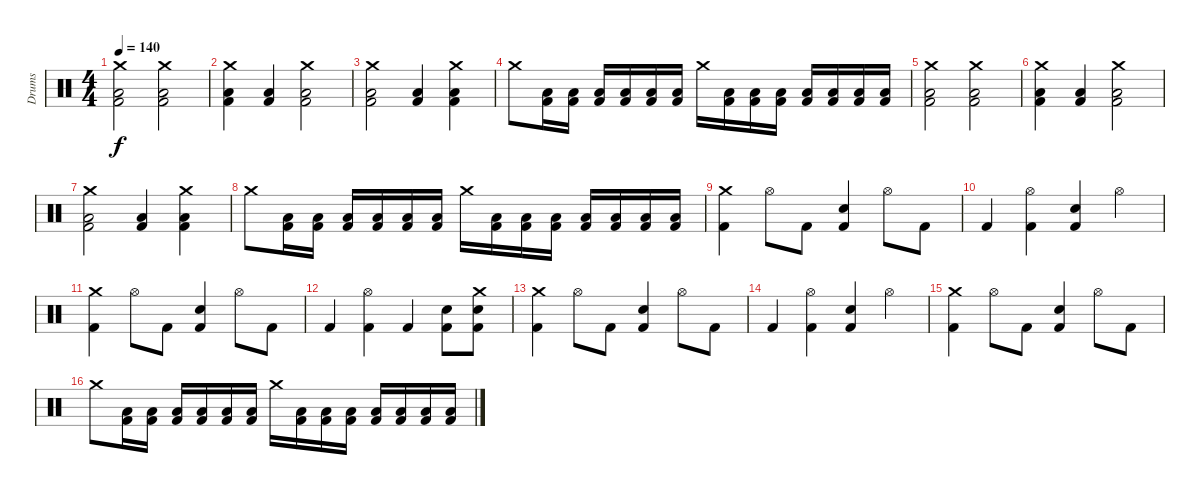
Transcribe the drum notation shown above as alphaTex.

\track ("Drums" "Drums") {instrument percussion}
\staff {score}
\articulation defaults
\ts (4 4)
\tempo 140
\clef neutral
\ks c
("Crash medium (hit)" "Low Tom (hit)" "Kick (hit) 2").2{dy f} ("Crash medium (hit)" "Low Tom (hit)" "Kick (hit) 2").2 |
("Crash medium (hit)" "Low Tom (hit)" "Kick (hit) 2").4 ("Low Tom (hit)" "Kick (hit) 2").4 ("Crash medium (hit)" "Low Tom (hit)" "Kick (hit) 2").2 |
("Crash medium (hit)" "Low Tom (hit)" "Kick (hit) 2").2 ("Low Tom (hit)" "Kick (hit) 2").4 ("Crash medium (hit)" "Low Tom (hit)" "Kick (hit) 2").4 |
"Crash medium (hit)".8 ("Low Tom (hit)" "Kick (hit) 2").16 ("Low Tom (hit)" "Kick (hit) 2").16 ("Low Tom (hit)" "Kick (hit) 2").16 ("Low Tom (hit)" "Kick (hit) 2").16 ("Low Tom (hit)" "Kick (hit) 2").16 ("Low Tom (hit)" "Kick (hit) 2").16 "Crash medium (hit)".16 ("Low Tom (hit)" "Kick (hit) 2").16 ("Low Tom (hit)" "Kick (hit) 2").16 ("Low Tom (hit)" "Kick (hit) 2").16 ("Low Tom (hit)" "Kick (hit) 2").16 ("Low Tom (hit)" "Kick (hit) 2").16 ("Low Tom (hit)" "Kick (hit) 2").16 ("Low Tom (hit)" "Kick (hit) 2").16 |
("Crash medium (hit)" "Low Tom (hit)" "Kick (hit) 2").2 ("Crash medium (hit)" "Low Tom (hit)" "Kick (hit) 2").2 |
("Crash medium (hit)" "Low Tom (hit)" "Kick (hit) 2").4 ("Low Tom (hit)" "Kick (hit) 2").4 ("Crash medium (hit)" "Low Tom (hit)" "Kick (hit) 2").2 |
("Crash medium (hit)" "Low Tom (hit)" "Kick (hit) 2").2 ("Low Tom (hit)" "Kick (hit) 2").4 ("Crash medium (hit)" "Low Tom (hit)" "Kick (hit) 2").4 |
"Crash medium (hit)".8 ("Low Tom (hit)" "Kick (hit) 2").16 ("Low Tom (hit)" "Kick (hit) 2").16 ("Low Tom (hit)" "Kick (hit) 2").16 ("Low Tom (hit)" "Kick (hit) 2").16 ("Low Tom (hit)" "Kick (hit) 2").16 ("Low Tom (hit)" "Kick (hit) 2").16 "Crash medium (hit)".16 ("Low Tom (hit)" "Kick (hit) 2").16 ("Low Tom (hit)" "Kick (hit) 2").16 ("Low Tom (hit)" "Kick (hit) 2").16 ("Low Tom (hit)" "Kick (hit) 2").16 ("Low Tom (hit)" "Kick (hit) 2").16 ("Low Tom (hit)" "Kick (hit) 2").16 ("Low Tom (hit)" "Kick (hit) 2").16 |
("Crash medium (hit)" "Kick (hit) 2").4 "Hi-Hat (open)".8 "Kick (hit) 2".8 ("Electric Snare (hit)" "Kick (hit) 2").4 "Hi-Hat (open)".8 "Kick (hit) 2".8 |
"Kick (hit) 2".4 ("Hi-Hat (open)" "Kick (hit) 2").4 ("Electric Snare (hit)" "Kick (hit) 2").4 "Hi-Hat (open)".4 |
("Crash medium (hit)" "Kick (hit) 2").4 "Hi-Hat (open)".8 "Kick (hit) 2".8 ("Electric Snare (hit)" "Kick (hit) 2").4 "Hi-Hat (open)".8 "Kick (hit) 2".8 |
"Kick (hit) 2".4 ("Hi-Hat (open)" "Kick (hit) 2").4 "Kick (hit) 2".4 ("Electric Snare (hit)" "Kick (hit) 2").8 ("Crash medium (hit)" "Electric Snare (hit)" "Kick (hit) 2").8 |
("Crash medium (hit)" "Kick (hit) 2").4 "Hi-Hat (open)".8 "Kick (hit) 2".8 ("Electric Snare (hit)" "Kick (hit) 2").4 "Hi-Hat (open)".8 "Kick (hit) 2".8 |
"Kick (hit) 2".4 ("Hi-Hat (open)" "Kick (hit) 2").4 ("Electric Snare (hit)" "Kick (hit) 2").4 "Hi-Hat (open)".4 |
("Crash medium (hit)" "Kick (hit) 2").4 "Hi-Hat (open)".8 "Kick (hit) 2".8 ("Electric Snare (hit)" "Kick (hit) 2").4 "Hi-Hat (open)".8 "Kick (hit) 2".8 |
"Crash medium (hit)".8 ("Low Tom (hit)" "Kick (hit) 2").16 ("Low Tom (hit)" "Kick (hit) 2").16 ("Low Tom (hit)" "Kick (hit) 2").16 ("Low Tom (hit)" "Kick (hit) 2").16 ("Low Tom (hit)" "Kick (hit) 2").16 ("Low Tom (hit)" "Kick (hit) 2").16 "Crash medium (hit)".16 ("Low Tom (hit)" "Kick (hit) 2").16 ("Low Tom (hit)" "Kick (hit) 2").16 ("Low Tom (hit)" "Kick (hit) 2").16 ("Low Tom (hit)" "Kick (hit) 2").16 ("Low Tom (hit)" "Kick (hit) 2").16 ("Low Tom (hit)" "Kick (hit) 2").16 ("Low Tom (hit)" "Kick (hit) 2").16
